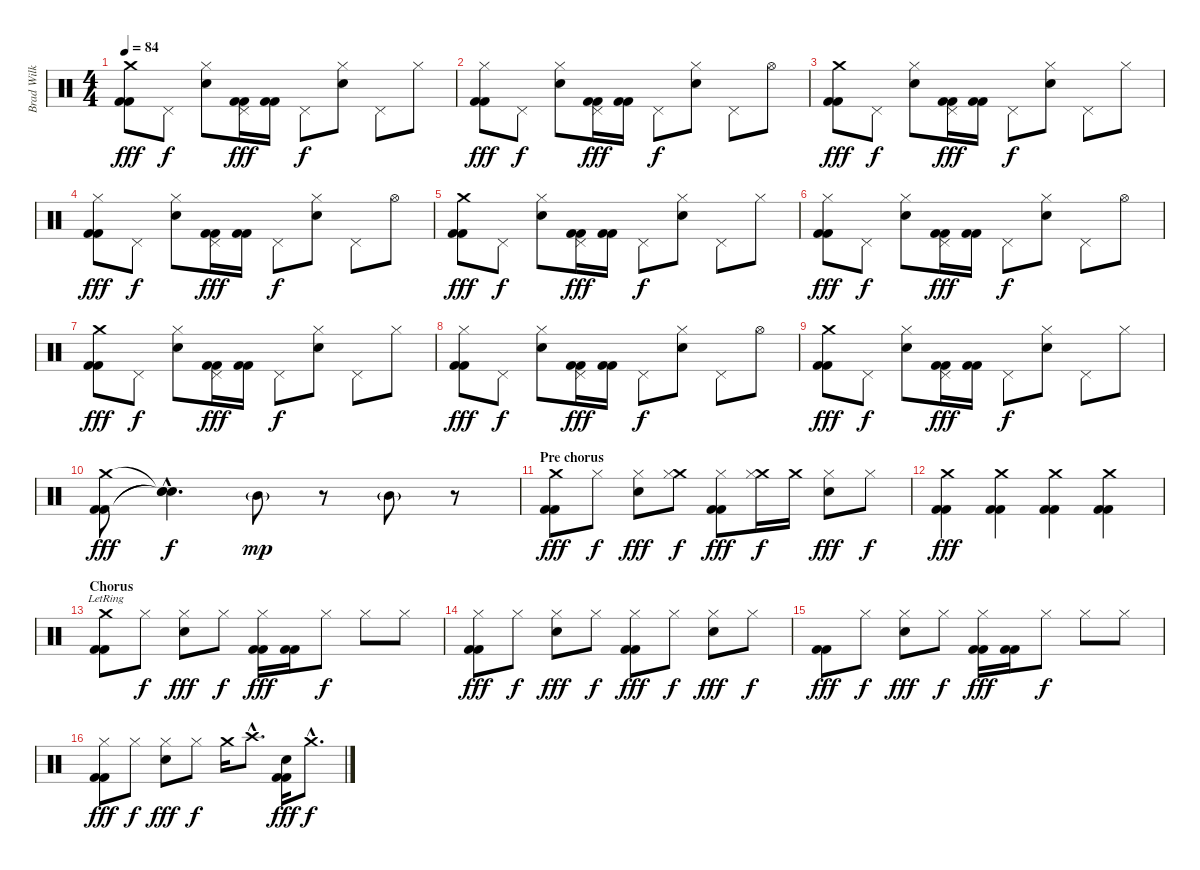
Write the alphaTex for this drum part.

\track ("Brad Wilk" "Brad Wilk") {instrument percussion}
\staff {score}
\articulation defaults
\ts (4 4)
\tempo 84
\clef neutral
\ks c
("Crash medium (hit)" "Kick (hit) 2" "Kick (hit) 2").8{dy fff} "Pedal Hi-Hat (hit)".8{dy f} ("Hi-Hat (closed)" "Snare (hit) 2").8 ("Pedal Hi-Hat (hit)" "Kick (hit) 2" "Kick (hit) 2").16{dy fff} ("Kick (hit) 2" "Kick (hit) 2").16 "Pedal Hi-Hat (hit)".8{dy f} ("Hi-Hat (closed)" "Snare (hit) 2").8 "Pedal Hi-Hat (hit)".8 "Hi-Hat (closed)".8 |
("Hi-Hat (closed)" "Kick (hit) 2" "Kick (hit) 2").8{dy fff} "Pedal Hi-Hat (hit)".8{dy f} ("Hi-Hat (closed)" "Snare (hit) 2").8 ("Pedal Hi-Hat (hit)" "Kick (hit) 2" "Kick (hit) 2").16{dy fff} ("Kick (hit) 2" "Kick (hit) 2").16 "Pedal Hi-Hat (hit)".8{dy f} ("Hi-Hat (closed)" "Snare (hit) 2").8 "Pedal Hi-Hat (hit)".8 "Hi-Hat (open)".8 |
("Crash medium (hit)" "Kick (hit) 2" "Kick (hit) 2").8{dy fff} "Pedal Hi-Hat (hit)".8{dy f} ("Hi-Hat (closed)" "Snare (hit) 2").8 ("Pedal Hi-Hat (hit)" "Kick (hit) 2" "Kick (hit) 2").16{dy fff} ("Kick (hit) 2" "Kick (hit) 2").16 "Pedal Hi-Hat (hit)".8{dy f} ("Hi-Hat (closed)" "Snare (hit) 2").8 "Pedal Hi-Hat (hit)".8 "Hi-Hat (closed)".8 |
("Hi-Hat (closed)" "Kick (hit) 2" "Kick (hit) 2").8{dy fff} "Pedal Hi-Hat (hit)".8{dy f} ("Hi-Hat (closed)" "Snare (hit) 2").8 ("Pedal Hi-Hat (hit)" "Kick (hit) 2" "Kick (hit) 2").16{dy fff} ("Kick (hit) 2" "Kick (hit) 2").16 "Pedal Hi-Hat (hit)".8{dy f} ("Hi-Hat (closed)" "Snare (hit) 2").8 "Pedal Hi-Hat (hit)".8 "Hi-Hat (open)".8 |
("Crash medium (hit)" "Kick (hit) 2" "Kick (hit) 2").8{dy fff} "Pedal Hi-Hat (hit)".8{dy f} ("Hi-Hat (closed)" "Snare (hit) 2").8 ("Pedal Hi-Hat (hit)" "Kick (hit) 2" "Kick (hit) 2").16{dy fff} ("Kick (hit) 2" "Kick (hit) 2").16 "Pedal Hi-Hat (hit)".8{dy f} ("Hi-Hat (closed)" "Snare (hit) 2").8 "Pedal Hi-Hat (hit)".8 "Hi-Hat (closed)".8 |
("Hi-Hat (closed)" "Kick (hit) 2" "Kick (hit) 2").8{dy fff} "Pedal Hi-Hat (hit)".8{dy f} ("Hi-Hat (closed)" "Snare (hit) 2").8 ("Pedal Hi-Hat (hit)" "Kick (hit) 2" "Kick (hit) 2").16{dy fff} ("Kick (hit) 2" "Kick (hit) 2").16 "Pedal Hi-Hat (hit)".8{dy f} ("Hi-Hat (closed)" "Snare (hit) 2").8 "Pedal Hi-Hat (hit)".8 "Hi-Hat (open)".8 |
("Crash medium (hit)" "Kick (hit) 2" "Kick (hit) 2").8{dy fff} "Pedal Hi-Hat (hit)".8{dy f} ("Hi-Hat (closed)" "Snare (hit) 2").8 ("Pedal Hi-Hat (hit)" "Kick (hit) 2" "Kick (hit) 2").16{dy fff} ("Kick (hit) 2" "Kick (hit) 2").16 "Pedal Hi-Hat (hit)".8{dy f} ("Hi-Hat (closed)" "Snare (hit) 2").8 "Pedal Hi-Hat (hit)".8 "Hi-Hat (closed)".8 |
("Hi-Hat (closed)" "Kick (hit) 2" "Kick (hit) 2").8{dy fff} "Pedal Hi-Hat (hit)".8{dy f} ("Hi-Hat (closed)" "Snare (hit) 2").8 ("Pedal Hi-Hat (hit)" "Kick (hit) 2" "Kick (hit) 2").16{dy fff} ("Kick (hit) 2" "Kick (hit) 2").16 "Pedal Hi-Hat (hit)".8{dy f} ("Hi-Hat (closed)" "Snare (hit) 2").8 "Pedal Hi-Hat (hit)".8 "Hi-Hat (open)".8 |
("Crash medium (hit)" "Kick (hit) 2" "Kick (hit) 2").8{dy fff} "Pedal Hi-Hat (hit)".8{dy f} ("Hi-Hat (closed)" "Snare (hit) 2").8 ("Pedal Hi-Hat (hit)" "Kick (hit) 2" "Kick (hit) 2").16{dy fff} ("Kick (hit) 2" "Kick (hit) 2").16 "Pedal Hi-Hat (hit)".8{dy f} ("Hi-Hat (closed)" "Snare (hit) 2").8 "Pedal Hi-Hat (hit)".8 "Hi-Hat (closed)".8 |
("Crash medium (hit)" "Kick (hit) 2" "Kick (hit) 2").8{dy fff} ("Snare (hit)"{hac t} "Snare (hit)"{hac t} "Snare (hit)"{hac t}).4{d dy f} "Mid Tom (hit)"{g}.8{dy mp} r.8 "Mid Tom (hit)"{g}.8 r.8 |
\section ("" "Pre chorus")
("Crash medium (hit)" "Kick (hit) 2" "Kick (hit) 2").8{dy fff} "Hi-Hat (closed)".8{dy f} ("Hi-Hat (closed)" "Snare (hit) 2").8{dy fff} ("Crash medium (hit)" "Hi-Hat (closed)").8{dy f} ("Hi-Hat (closed)" "Kick (hit) 2" "Kick (hit) 2").8{dy fff} ("Crash medium (hit)" "Hi-Hat (closed)").16{dy f} "Crash medium (hit)".16 ("Hi-Hat (closed)" "Snare (hit) 2").8{dy fff} "Hi-Hat (closed)".8{dy f} |
("Crash medium (hit)" "Kick (hit) 2" "Kick (hit) 2").4{dy fff} ("Crash medium (hit)" "Kick (hit) 2" "Kick (hit) 2").4 ("Crash medium (hit)" "Kick (hit) 2" "Kick (hit) 2").4 ("Crash medium (hit)" "Kick (hit) 2" "Kick (hit) 2").4 |
\section ("" "Chorus")
("Crash medium (hit)"{lr} "Kick (hit) 2" "Kick (hit) 2").8 "Hi-Hat (closed)".8{dy f} ("Hi-Hat (closed)" "Snare (hit) 2").8{dy fff} "Hi-Hat (closed)".8{dy f} ("Hi-Hat (closed)" "Kick (hit) 2" "Kick (hit) 2").16{dy fff} ("Kick (hit) 2" "Kick (hit) 2").16 "Hi-Hat (closed)".8{dy f} "Hi-Hat (closed)".8 "Hi-Hat (closed)".8 |
("Hi-Hat (closed)" "Kick (hit) 2" "Kick (hit) 2").8{dy fff} "Hi-Hat (closed)".8{dy f} ("Hi-Hat (closed)" "Snare (hit) 2").8{dy fff} "Hi-Hat (closed)".8{dy f} ("Hi-Hat (closed)" "Kick (hit) 2" "Kick (hit) 2").8{dy fff} "Hi-Hat (closed)".8{dy f} ("Hi-Hat (closed)" "Snare (hit) 2").8{dy fff} "Hi-Hat (closed)".8{dy f} |
("Kick (hit) 2" "Kick (hit) 2").8{dy fff} "Hi-Hat (closed)".8{dy f} ("Hi-Hat (closed)" "Snare (hit) 2").8{dy fff} "Hi-Hat (closed)".8{dy f} ("Hi-Hat (closed)" "Kick (hit) 2" "Kick (hit) 2").16{dy fff} ("Kick (hit) 2" "Kick (hit) 2").16 "Hi-Hat (closed)".8{dy f} "Hi-Hat (closed)".8 "Hi-Hat (closed)".8 |
("Hi-Hat (closed)" "Kick (hit) 2" "Kick (hit) 2").8{dy fff} "Hi-Hat (closed)".8{dy f} ("Hi-Hat (closed)" "Snare (hit) 2").8{dy fff} "Hi-Hat (closed)".8{dy f} "Crash medium (hit)".16 "Crash high (hit)"{hac}.8{d} ("Electric Snare (hit)" "Kick (hit) 2" "Kick (hit) 2").16{dy fff} "Crash medium (hit)"{hac}.8{d dy f}
